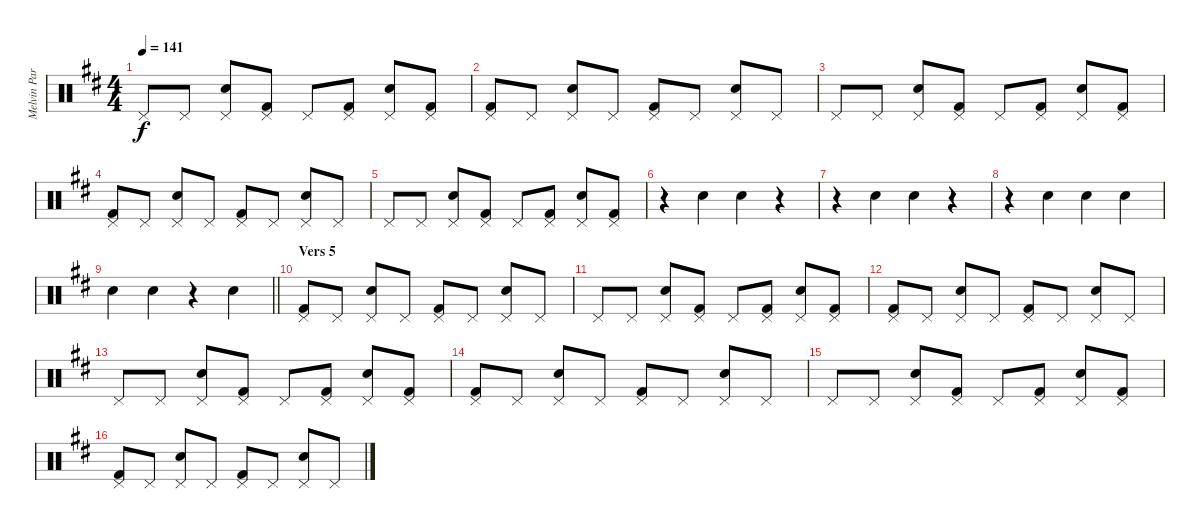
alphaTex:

\track ("Melvin Parker - Drums " "Melvin Par") {instrument percussion}
\staff {score}
\articulation defaults
\ts (4 4)
\tempo 141
\clef neutral
\ks d "Pedal Hi-Hat (hit)".8{dy f} "Pedal Hi-Hat (hit)".8
("Pedal Hi-Hat (hit)" "Electric Snare (hit)").8 ("Pedal Hi-Hat (hit)" "Kick (hit) 2").8 "Pedal Hi-Hat (hit)".8 ("Pedal Hi-Hat (hit)" "Kick (hit) 2").8 ("Pedal Hi-Hat (hit)" "Electric Snare (hit)").8 ("Pedal Hi-Hat (hit)" "Kick (hit) 2").8 |
("Pedal Hi-Hat (hit)" "Kick (hit) 2").8 "Pedal Hi-Hat (hit)".8 ("Pedal Hi-Hat (hit)" "Electric Snare (hit)").8 "Pedal Hi-Hat (hit)".8 ("Pedal Hi-Hat (hit)" "Kick (hit) 2").8 "Pedal Hi-Hat (hit)".8 ("Pedal Hi-Hat (hit)" "Electric Snare (hit)").8 "Pedal Hi-Hat (hit)".8 |
"Pedal Hi-Hat (hit)".8 "Pedal Hi-Hat (hit)".8 ("Pedal Hi-Hat (hit)" "Electric Snare (hit)").8 ("Pedal Hi-Hat (hit)" "Kick (hit) 2").8 "Pedal Hi-Hat (hit)".8 ("Pedal Hi-Hat (hit)" "Kick (hit) 2").8 ("Pedal Hi-Hat (hit)" "Electric Snare (hit)").8 ("Pedal Hi-Hat (hit)" "Kick (hit) 2").8 |
("Pedal Hi-Hat (hit)" "Kick (hit) 2").8 "Pedal Hi-Hat (hit)".8 ("Pedal Hi-Hat (hit)" "Electric Snare (hit)").8 "Pedal Hi-Hat (hit)".8 ("Pedal Hi-Hat (hit)" "Kick (hit) 2").8 "Pedal Hi-Hat (hit)".8 ("Pedal Hi-Hat (hit)" "Electric Snare (hit)").8 "Pedal Hi-Hat (hit)".8 |
"Pedal Hi-Hat (hit)".8 "Pedal Hi-Hat (hit)".8 ("Pedal Hi-Hat (hit)" "Electric Snare (hit)").8 ("Pedal Hi-Hat (hit)" "Kick (hit) 2").8 "Pedal Hi-Hat (hit)".8 ("Pedal Hi-Hat (hit)" "Kick (hit) 2").8 ("Pedal Hi-Hat (hit)" "Electric Snare (hit)").8 ("Pedal Hi-Hat (hit)" "Kick (hit) 2").8 |
r.4 "Electric Snare (hit)".4 "Electric Snare (hit)".4 r.4 |
r.4 "Electric Snare (hit)".4 "Electric Snare (hit)".4 r.4 |
r.4 "Electric Snare (hit)".4 "Electric Snare (hit)".4 "Electric Snare (hit)".4 |
\barLineRight lightlight "Electric Snare (hit)".4 "Electric Snare (hit)".4
r.4 "Electric Snare (hit)".4 |
\section ("" "Vers 5")
("Pedal Hi-Hat (hit)" "Kick (hit) 2").8 "Pedal Hi-Hat (hit)".8 ("Pedal Hi-Hat (hit)" "Electric Snare (hit)").8 "Pedal Hi-Hat (hit)".8 ("Pedal Hi-Hat (hit)" "Kick (hit) 2").8 "Pedal Hi-Hat (hit)".8 ("Pedal Hi-Hat (hit)" "Electric Snare (hit)").8 "Pedal Hi-Hat (hit)".8 |
"Pedal Hi-Hat (hit)".8 "Pedal Hi-Hat (hit)".8 ("Pedal Hi-Hat (hit)" "Electric Snare (hit)").8 ("Pedal Hi-Hat (hit)" "Kick (hit) 2").8 "Pedal Hi-Hat (hit)".8 ("Pedal Hi-Hat (hit)" "Kick (hit) 2").8 ("Pedal Hi-Hat (hit)" "Electric Snare (hit)").8 ("Pedal Hi-Hat (hit)" "Kick (hit) 2").8 |
("Pedal Hi-Hat (hit)" "Kick (hit) 2").8 "Pedal Hi-Hat (hit)".8 ("Pedal Hi-Hat (hit)" "Electric Snare (hit)").8 "Pedal Hi-Hat (hit)".8 ("Pedal Hi-Hat (hit)" "Kick (hit) 2").8 "Pedal Hi-Hat (hit)".8 ("Pedal Hi-Hat (hit)" "Electric Snare (hit)").8 "Pedal Hi-Hat (hit)".8 |
"Pedal Hi-Hat (hit)".8 "Pedal Hi-Hat (hit)".8 ("Pedal Hi-Hat (hit)" "Electric Snare (hit)").8 ("Pedal Hi-Hat (hit)" "Kick (hit) 2").8 "Pedal Hi-Hat (hit)".8 ("Pedal Hi-Hat (hit)" "Kick (hit) 2").8 ("Pedal Hi-Hat (hit)" "Electric Snare (hit)").8 ("Pedal Hi-Hat (hit)" "Kick (hit) 2").8 |
("Pedal Hi-Hat (hit)" "Kick (hit) 2").8 "Pedal Hi-Hat (hit)".8 ("Pedal Hi-Hat (hit)" "Electric Snare (hit)").8 "Pedal Hi-Hat (hit)".8 ("Pedal Hi-Hat (hit)" "Kick (hit) 2").8 "Pedal Hi-Hat (hit)".8 ("Pedal Hi-Hat (hit)" "Electric Snare (hit)").8 "Pedal Hi-Hat (hit)".8 |
"Pedal Hi-Hat (hit)".8 "Pedal Hi-Hat (hit)".8 ("Pedal Hi-Hat (hit)" "Electric Snare (hit)").8 ("Pedal Hi-Hat (hit)" "Kick (hit) 2").8 "Pedal Hi-Hat (hit)".8 ("Pedal Hi-Hat (hit)" "Kick (hit) 2").8 ("Pedal Hi-Hat (hit)" "Electric Snare (hit)").8 ("Pedal Hi-Hat (hit)" "Kick (hit) 2").8 |
("Pedal Hi-Hat (hit)" "Kick (hit) 2").8 "Pedal Hi-Hat (hit)".8 ("Pedal Hi-Hat (hit)" "Electric Snare (hit)").8 "Pedal Hi-Hat (hit)".8 ("Pedal Hi-Hat (hit)" "Kick (hit) 2").8 "Pedal Hi-Hat (hit)".8 ("Pedal Hi-Hat (hit)" "Electric Snare (hit)").8 "Pedal Hi-Hat (hit)".8
